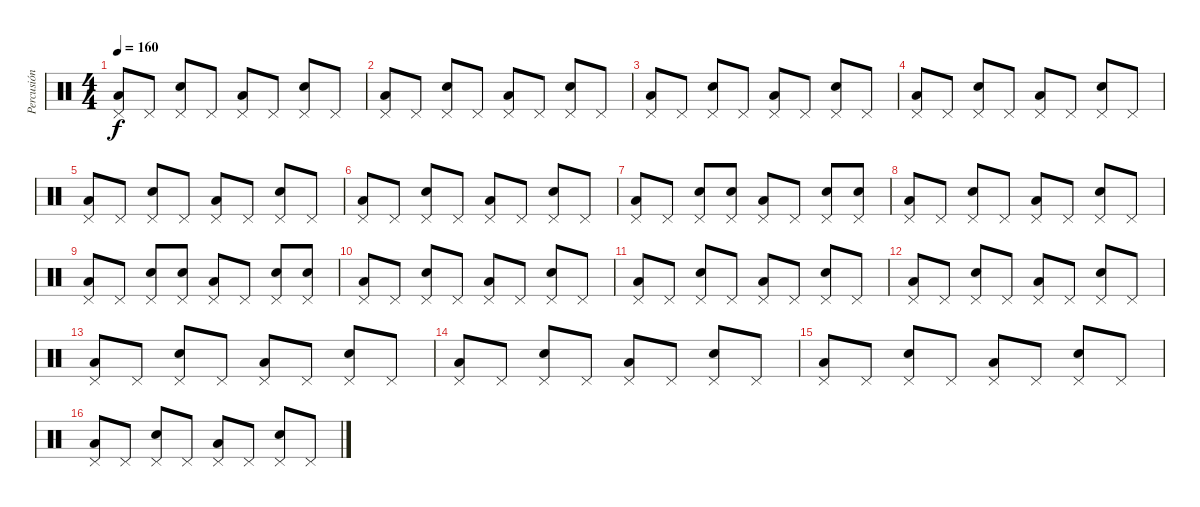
\track ("Percusión" "Percusión") {instrument percussion}
\staff {score}
\articulation defaults
\ts (4 4)
\tempo 160
\clef neutral
\ks c
("Pedal Hi-Hat (hit)" "Low Floor Tom (hit)").8{dy f} "Pedal Hi-Hat (hit)".8 ("Pedal Hi-Hat (hit)" "Snare (hit) 2").8 "Pedal Hi-Hat (hit)".8 ("Pedal Hi-Hat (hit)" "Low Floor Tom (hit)").8 "Pedal Hi-Hat (hit)".8 ("Pedal Hi-Hat (hit)" "Snare (hit) 2").8 "Pedal Hi-Hat (hit)".8 |
("Pedal Hi-Hat (hit)" "Low Floor Tom (hit)").8 "Pedal Hi-Hat (hit)".8 ("Pedal Hi-Hat (hit)" "Snare (hit) 2").8 "Pedal Hi-Hat (hit)".8 ("Pedal Hi-Hat (hit)" "Low Floor Tom (hit)").8 "Pedal Hi-Hat (hit)".8 ("Pedal Hi-Hat (hit)" "Snare (hit) 2").8 "Pedal Hi-Hat (hit)".8 |
("Pedal Hi-Hat (hit)" "Low Floor Tom (hit)").8 "Pedal Hi-Hat (hit)".8 ("Pedal Hi-Hat (hit)" "Snare (hit) 2").8 "Pedal Hi-Hat (hit)".8 ("Pedal Hi-Hat (hit)" "Low Floor Tom (hit)").8 "Pedal Hi-Hat (hit)".8 ("Pedal Hi-Hat (hit)" "Snare (hit) 2").8 "Pedal Hi-Hat (hit)".8 |
("Pedal Hi-Hat (hit)" "Low Floor Tom (hit)").8 "Pedal Hi-Hat (hit)".8 ("Pedal Hi-Hat (hit)" "Snare (hit) 2").8 "Pedal Hi-Hat (hit)".8 ("Pedal Hi-Hat (hit)" "Low Floor Tom (hit)").8 "Pedal Hi-Hat (hit)".8 ("Pedal Hi-Hat (hit)" "Snare (hit) 2").8 "Pedal Hi-Hat (hit)".8 |
("Pedal Hi-Hat (hit)" "Low Floor Tom (hit)").8 "Pedal Hi-Hat (hit)".8 ("Pedal Hi-Hat (hit)" "Snare (hit) 2").8 "Pedal Hi-Hat (hit)".8 ("Pedal Hi-Hat (hit)" "Low Floor Tom (hit)").8 "Pedal Hi-Hat (hit)".8 ("Pedal Hi-Hat (hit)" "Snare (hit) 2").8 "Pedal Hi-Hat (hit)".8 |
("Pedal Hi-Hat (hit)" "Low Floor Tom (hit)").8 "Pedal Hi-Hat (hit)".8 ("Pedal Hi-Hat (hit)" "Snare (hit) 2").8 "Pedal Hi-Hat (hit)".8 ("Pedal Hi-Hat (hit)" "Low Floor Tom (hit)").8 "Pedal Hi-Hat (hit)".8 ("Pedal Hi-Hat (hit)" "Snare (hit) 2").8 "Pedal Hi-Hat (hit)".8 |
("Pedal Hi-Hat (hit)" "Low Floor Tom (hit)").8 "Pedal Hi-Hat (hit)".8 ("Pedal Hi-Hat (hit)" "Snare (hit) 2").8 ("Pedal Hi-Hat (hit)" "Snare (hit) 2").8 ("Pedal Hi-Hat (hit)" "Low Floor Tom (hit)").8 "Pedal Hi-Hat (hit)".8 ("Pedal Hi-Hat (hit)" "Snare (hit) 2").8 ("Pedal Hi-Hat (hit)" "Snare (hit) 2").8 |
("Pedal Hi-Hat (hit)" "Low Floor Tom (hit)").8 "Pedal Hi-Hat (hit)".8 ("Pedal Hi-Hat (hit)" "Snare (hit) 2").8 "Pedal Hi-Hat (hit)".8 ("Pedal Hi-Hat (hit)" "Low Floor Tom (hit)").8 "Pedal Hi-Hat (hit)".8 ("Pedal Hi-Hat (hit)" "Snare (hit) 2").8 "Pedal Hi-Hat (hit)".8 |
("Pedal Hi-Hat (hit)" "Low Floor Tom (hit)").8 "Pedal Hi-Hat (hit)".8 ("Pedal Hi-Hat (hit)" "Snare (hit) 2").8 ("Pedal Hi-Hat (hit)" "Snare (hit) 2").8 ("Pedal Hi-Hat (hit)" "Low Floor Tom (hit)").8 "Pedal Hi-Hat (hit)".8 ("Pedal Hi-Hat (hit)" "Snare (hit) 2").8 ("Pedal Hi-Hat (hit)" "Snare (hit) 2").8 |
("Pedal Hi-Hat (hit)" "Low Floor Tom (hit)").8 "Pedal Hi-Hat (hit)".8 ("Pedal Hi-Hat (hit)" "Snare (hit) 2").8 "Pedal Hi-Hat (hit)".8 ("Pedal Hi-Hat (hit)" "Low Floor Tom (hit)").8 "Pedal Hi-Hat (hit)".8 ("Pedal Hi-Hat (hit)" "Snare (hit) 2").8 "Pedal Hi-Hat (hit)".8 |
("Pedal Hi-Hat (hit)" "Low Floor Tom (hit)").8 "Pedal Hi-Hat (hit)".8 ("Pedal Hi-Hat (hit)" "Snare (hit) 2").8 "Pedal Hi-Hat (hit)".8 ("Pedal Hi-Hat (hit)" "Low Floor Tom (hit)").8 "Pedal Hi-Hat (hit)".8 ("Pedal Hi-Hat (hit)" "Snare (hit) 2").8 "Pedal Hi-Hat (hit)".8 |
("Pedal Hi-Hat (hit)" "Low Floor Tom (hit)").8 "Pedal Hi-Hat (hit)".8 ("Pedal Hi-Hat (hit)" "Snare (hit) 2").8 "Pedal Hi-Hat (hit)".8 ("Pedal Hi-Hat (hit)" "Low Floor Tom (hit)").8 "Pedal Hi-Hat (hit)".8 ("Pedal Hi-Hat (hit)" "Snare (hit) 2").8 "Pedal Hi-Hat (hit)".8 |
("Pedal Hi-Hat (hit)" "Low Floor Tom (hit)").8 "Pedal Hi-Hat (hit)".8 ("Pedal Hi-Hat (hit)" "Snare (hit) 2").8 "Pedal Hi-Hat (hit)".8 ("Pedal Hi-Hat (hit)" "Low Floor Tom (hit)").8 "Pedal Hi-Hat (hit)".8 ("Pedal Hi-Hat (hit)" "Snare (hit) 2").8 "Pedal Hi-Hat (hit)".8 |
("Pedal Hi-Hat (hit)" "Low Floor Tom (hit)").8 "Pedal Hi-Hat (hit)".8 ("Pedal Hi-Hat (hit)" "Snare (hit) 2").8 "Pedal Hi-Hat (hit)".8 ("Pedal Hi-Hat (hit)" "Low Floor Tom (hit)").8 "Pedal Hi-Hat (hit)".8 ("Pedal Hi-Hat (hit)" "Snare (hit) 2").8 "Pedal Hi-Hat (hit)".8 |
("Pedal Hi-Hat (hit)" "Low Floor Tom (hit)").8 "Pedal Hi-Hat (hit)".8 ("Pedal Hi-Hat (hit)" "Snare (hit) 2").8 "Pedal Hi-Hat (hit)".8 ("Pedal Hi-Hat (hit)" "Low Floor Tom (hit)").8 "Pedal Hi-Hat (hit)".8 ("Pedal Hi-Hat (hit)" "Snare (hit) 2").8 "Pedal Hi-Hat (hit)".8 |
("Pedal Hi-Hat (hit)" "Low Floor Tom (hit)").8 "Pedal Hi-Hat (hit)".8 ("Pedal Hi-Hat (hit)" "Snare (hit) 2").8 "Pedal Hi-Hat (hit)".8 ("Pedal Hi-Hat (hit)" "Low Floor Tom (hit)").8 "Pedal Hi-Hat (hit)".8 ("Pedal Hi-Hat (hit)" "Snare (hit) 2").8 "Pedal Hi-Hat (hit)".8
